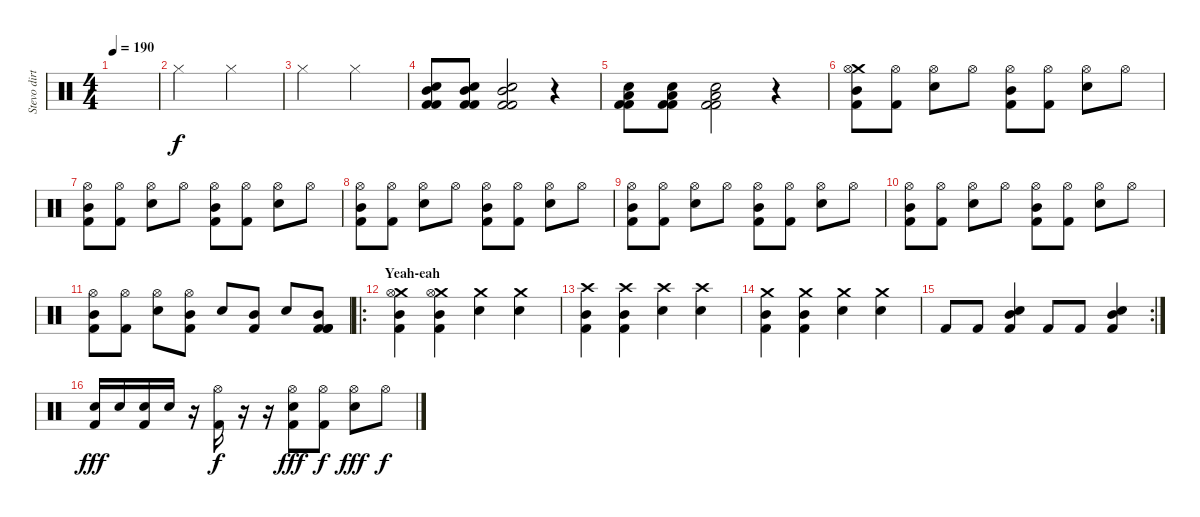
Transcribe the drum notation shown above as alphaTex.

\track ("Stevo dirty poo (drummer)" "Stevo dirt") {instrument percussion}
\staff {score}
\articulation defaults
\ts (4 4)
\tempo 190
\clef neutral
\ks c
|
"Hi-Hat (closed)".2{dy f} "Hi-Hat (closed)".2 |
"Hi-Hat (closed)".2 "Hi-Hat (closed)".2 |
("Snare (hit) 2" "Mid Tom (hit)" "Kick (hit) 2" "Kick (hit) 2").8 ("Snare (hit) 2" "Mid Tom (hit)" "Kick (hit) 2" "Kick (hit) 2").8 ("Snare (hit) 2" "Mid Tom (hit)" "Kick (hit) 2" "Kick (hit) 2").2 r.4 |
("Snare (hit) 2" "Low Tom (hit)" "Kick (hit) 2" "Kick (hit) 2").8 ("Snare (hit) 2" "Low Tom (hit)" "Kick (hit) 2" "Kick (hit) 2").8 ("Snare (hit) 2" "Low Tom (hit)" "Kick (hit) 2" "Kick (hit) 2").2 r.4 |
("Crash medium (hit)" "Mid Tom (hit)" "Hi-Hat (open)" "Kick (hit) 2").8 ("Hi-Hat (open)" "Kick (hit) 2").8 ("Snare (hit) 2" "Hi-Hat (open)").8 "Hi-Hat (open)".8 ("Mid Tom (hit)" "Hi-Hat (open)" "Kick (hit) 2").8 ("Hi-Hat (open)" "Kick (hit) 2").8 ("Snare (hit) 2" "Hi-Hat (open)").8 "Hi-Hat (open)".8 |
("Mid Tom (hit)" "Hi-Hat (open)" "Kick (hit) 2").8 ("Hi-Hat (open)" "Kick (hit) 2").8 ("Snare (hit) 2" "Hi-Hat (open)").8 "Hi-Hat (open)".8 ("Mid Tom (hit)" "Hi-Hat (open)" "Kick (hit) 2").8 ("Hi-Hat (open)" "Kick (hit) 2").8 ("Snare (hit) 2" "Hi-Hat (open)").8 "Hi-Hat (open)".8 |
("Mid Tom (hit)" "Hi-Hat (open)" "Kick (hit) 2").8 ("Hi-Hat (open)" "Kick (hit) 2").8 ("Snare (hit) 2" "Hi-Hat (open)").8 "Hi-Hat (open)".8 ("Mid Tom (hit)" "Hi-Hat (open)" "Kick (hit) 2").8 ("Hi-Hat (open)" "Kick (hit) 2").8 ("Snare (hit) 2" "Hi-Hat (open)").8 "Hi-Hat (open)".8 |
("Mid Tom (hit)" "Hi-Hat (open)" "Kick (hit) 2").8 ("Hi-Hat (open)" "Kick (hit) 2").8 ("Snare (hit) 2" "Hi-Hat (open)").8 "Hi-Hat (open)".8 ("Mid Tom (hit)" "Hi-Hat (open)" "Kick (hit) 2").8 ("Hi-Hat (open)" "Kick (hit) 2").8 ("Snare (hit) 2" "Hi-Hat (open)").8 "Hi-Hat (open)".8 |
("Mid Tom (hit)" "Hi-Hat (open)" "Kick (hit) 2").8 ("Hi-Hat (open)" "Kick (hit) 2").8 ("Snare (hit) 2" "Hi-Hat (open)").8 "Hi-Hat (open)".8 ("Mid Tom (hit)" "Hi-Hat (open)" "Kick (hit) 2").8 ("Hi-Hat (open)" "Kick (hit) 2").8 ("Snare (hit) 2" "Hi-Hat (open)").8 "Hi-Hat (open)".8 |
("Mid Tom (hit)" "Hi-Hat (open)" "Kick (hit) 2").8 ("Hi-Hat (open)" "Kick (hit) 2").8 ("Snare (hit) 2" "Hi-Hat (open)").8 ("Mid Tom (hit)" "Hi-Hat (open)" "Kick (hit) 2").8 "Snare (hit) 2".8 ("Mid Tom (hit)" "Kick (hit) 2").8 "Snare (hit) 2".8 ("Kick (hit) 2" "Mid Tom (hit)" "Kick (hit) 2" "Kick (hit) 2").8 |
\ro
\section ("" "Yeah-eah")
("Crash medium (hit)" "Mid Tom (hit)" "Hi-Hat (open)" "Kick (hit) 2").4 ("Crash medium (hit)" "Mid Tom (hit)" "Hi-Hat (open)" "Kick (hit) 2").4 ("Crash medium (hit)" "Snare (hit) 2").4 ("Crash medium (hit)" "Snare (hit) 2").4 |
("Crash high (hit)" "Mid Tom (hit)" "Kick (hit) 2").4 ("Crash high (hit)" "Mid Tom (hit)" "Kick (hit) 2").4 ("Crash high (hit)" "Snare (hit) 2").4 ("Crash high (hit)" "Snare (hit) 2").4 |
("Crash medium (hit)" "Mid Tom (hit)" "Kick (hit) 2").4 ("Crash medium (hit)" "Mid Tom (hit)" "Kick (hit) 2").4 ("Crash medium (hit)" "Snare (hit) 2").4 ("Crash medium (hit)" "Snare (hit) 2").4 |
\rc 2 "Kick (hit) 2".8 "Kick (hit) 2".8
("Mid Tom (hit)" "Snare (hit) 2" "Kick (hit) 2").4 "Kick (hit) 2".8 "Kick (hit) 2".8 ("Mid Tom (hit)" "Snare (hit) 2" "Kick (hit) 2").4 |
("Snare (hit) 2" "Kick (hit) 2").16{dy fff} "Snare (hit) 2".16 ("Snare (hit) 2" "Kick (hit) 2").16 "Snare (hit) 2".16 r.16 ("Hi-Hat (open)" "Kick (hit) 2").16{dy f} r.16 r.16 ("Snare (hit) 2" "Hi-Hat (open)" "Kick (hit) 2").8{dy fff} ("Hi-Hat (open)" "Kick (hit) 2").8{dy f} ("Snare (hit) 2" "Hi-Hat (open)").8{dy fff} "Hi-Hat (open)".8{dy f}
